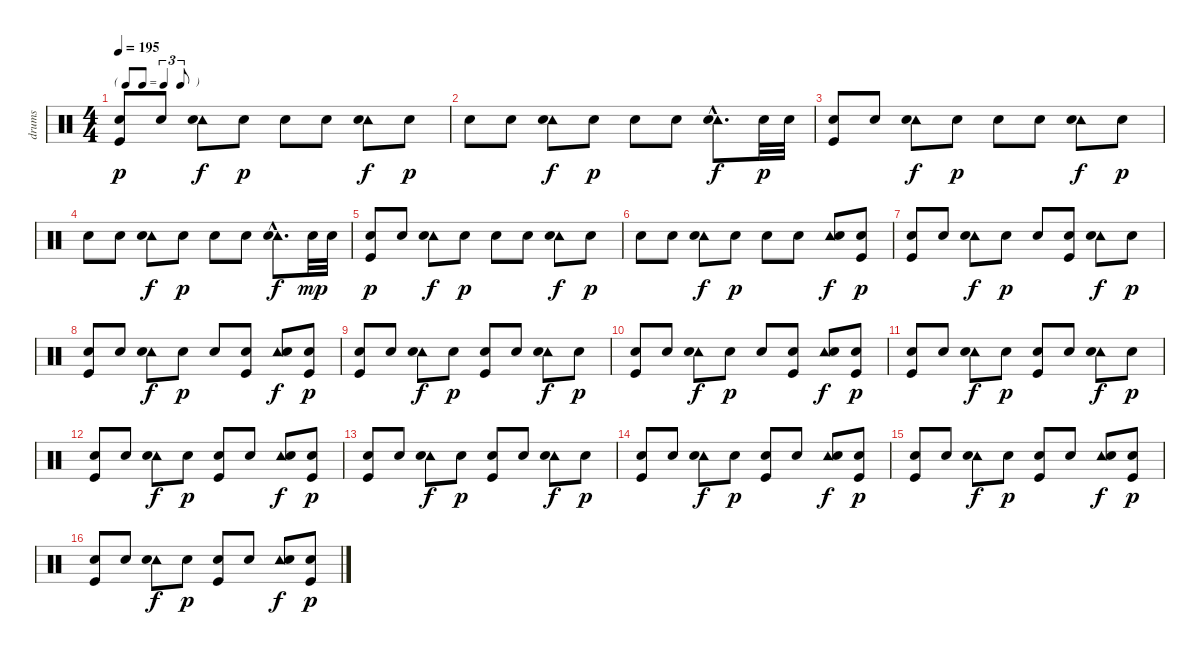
\track ("drums" "drums") {instrument percussion}
\staff {score}
\articulation defaults
\ts (4 4)
\tf triplet8th
\tempo 195
\clef neutral
\ks c
("Snare (hit) 2" "Kick (hit)").8{dy p} "Snare (hit) 2".8 ("Tambourine (hit)" "Snare (hit) 2").8{dy f} "Snare (hit) 2".8{dy p} "Snare (hit) 2".8 "Snare (hit) 2".8 ("Tambourine (hit)" "Snare (hit) 2").8{dy f} "Snare (hit) 2".8{dy p} |
"Snare (hit) 2".8 "Snare (hit) 2".8 ("Tambourine (hit)" "Snare (hit) 2").8{dy f} "Snare (hit) 2".8{dy p} "Snare (hit) 2".8 "Snare (hit) 2".8 ("Tambourine (hit)"{hac} "Snare (hit) 2"{hac}).8{d dy f} "Snare (hit) 2".32{dy p} "Snare (hit) 2".32 |
("Snare (hit) 2" "Kick (hit)").8 "Snare (hit) 2".8 ("Tambourine (hit)" "Snare (hit) 2").8{dy f} "Snare (hit) 2".8{dy p} "Snare (hit) 2".8 "Snare (hit) 2".8 ("Tambourine (hit)" "Snare (hit) 2").8{dy f} "Snare (hit) 2".8{dy p} |
"Snare (hit) 2".8 "Snare (hit) 2".8 ("Tambourine (hit)" "Snare (hit) 2").8{dy f} "Snare (hit) 2".8{dy p} "Snare (hit) 2".8 "Snare (hit) 2".8 ("Tambourine (hit)"{hac} "Snare (hit) 2"{hac}).8{d dy f} "Snare (hit) 2".32{dy mp} "Snare (hit) 2".32 |
("Snare (hit) 2" "Kick (hit)").8{dy p} "Snare (hit) 2".8 ("Tambourine (hit)" "Snare (hit) 2").8{dy f} "Snare (hit) 2".8{dy p} "Snare (hit) 2".8 "Snare (hit) 2".8 ("Tambourine (hit)" "Snare (hit) 2").8{dy f} "Snare (hit) 2".8{dy p} |
"Snare (hit) 2".8 "Snare (hit) 2".8 ("Tambourine (hit)" "Snare (hit) 2").8{dy f} "Snare (hit) 2".8{dy p} "Snare (hit) 2".8 "Snare (hit) 2".8 ("Tambourine (hit)" "Snare (hit) 2").8{dy f} ("Snare (hit) 2" "Kick (hit)").8{dy p} |
("Snare (hit) 2" "Kick (hit)").8 "Snare (hit) 2".8 ("Tambourine (hit)" "Snare (hit) 2").8{dy f} "Snare (hit) 2".8{dy p} "Snare (hit) 2".8 ("Snare (hit) 2" "Kick (hit)").8 ("Tambourine (hit)" "Snare (hit) 2").8{dy f} "Snare (hit) 2".8{dy p} |
("Snare (hit) 2" "Kick (hit)").8 "Snare (hit) 2".8 ("Tambourine (hit)" "Snare (hit) 2").8{dy f} "Snare (hit) 2".8{dy p} "Snare (hit) 2".8 ("Snare (hit) 2" "Kick (hit)").8 ("Tambourine (hit)" "Snare (hit) 2").8{dy f} ("Snare (hit) 2" "Kick (hit)").8{dy p} |
("Snare (hit) 2" "Kick (hit)").8 "Snare (hit) 2".8 ("Tambourine (hit)" "Snare (hit) 2").8{dy f} "Snare (hit) 2".8{dy p} ("Snare (hit) 2" "Kick (hit)").8 "Snare (hit) 2".8 ("Tambourine (hit)" "Snare (hit) 2").8{dy f} "Snare (hit) 2".8{dy p} |
("Snare (hit) 2" "Kick (hit)").8 "Snare (hit) 2".8 ("Tambourine (hit)" "Snare (hit) 2").8{dy f} "Snare (hit) 2".8{dy p} "Snare (hit) 2".8 ("Snare (hit) 2" "Kick (hit)").8 ("Tambourine (hit)" "Snare (hit) 2").8{dy f} ("Snare (hit) 2" "Kick (hit)").8{dy p} |
("Snare (hit) 2" "Kick (hit)").8 "Snare (hit) 2".8 ("Tambourine (hit)" "Snare (hit) 2").8{dy f} "Snare (hit) 2".8{dy p} ("Snare (hit) 2" "Kick (hit)").8 "Snare (hit) 2".8 ("Tambourine (hit)" "Snare (hit) 2").8{dy f} "Snare (hit) 2".8{dy p} |
("Snare (hit) 2" "Kick (hit)").8 "Snare (hit) 2".8 ("Tambourine (hit)" "Snare (hit) 2").8{dy f} "Snare (hit) 2".8{dy p} ("Snare (hit) 2" "Kick (hit)").8 "Snare (hit) 2".8 ("Tambourine (hit)" "Snare (hit) 2").8{dy f} ("Snare (hit) 2" "Kick (hit)").8{dy p} |
("Snare (hit) 2" "Kick (hit)").8 "Snare (hit) 2".8 ("Tambourine (hit)" "Snare (hit) 2").8{dy f} "Snare (hit) 2".8{dy p} ("Snare (hit) 2" "Kick (hit)").8 "Snare (hit) 2".8 ("Tambourine (hit)" "Snare (hit) 2").8{dy f} "Snare (hit) 2".8{dy p} |
("Snare (hit) 2" "Kick (hit)").8 "Snare (hit) 2".8 ("Tambourine (hit)" "Snare (hit) 2").8{dy f} "Snare (hit) 2".8{dy p} ("Snare (hit) 2" "Kick (hit)").8 "Snare (hit) 2".8 ("Tambourine (hit)" "Snare (hit) 2").8{dy f} ("Snare (hit) 2" "Kick (hit)").8{dy p} |
("Snare (hit) 2" "Kick (hit)").8 "Snare (hit) 2".8 ("Tambourine (hit)" "Snare (hit) 2").8{dy f} "Snare (hit) 2".8{dy p} ("Snare (hit) 2" "Kick (hit)").8 "Snare (hit) 2".8 ("Tambourine (hit)" "Snare (hit) 2").8{dy f} ("Snare (hit) 2" "Kick (hit)").8{dy p} |
("Snare (hit) 2" "Kick (hit)").8 "Snare (hit) 2".8 ("Tambourine (hit)" "Snare (hit) 2").8{dy f} "Snare (hit) 2".8{dy p} ("Snare (hit) 2" "Kick (hit)").8 "Snare (hit) 2".8 ("Tambourine (hit)" "Snare (hit) 2").8{dy f} ("Snare (hit) 2" "Kick (hit)").8{dy p}
